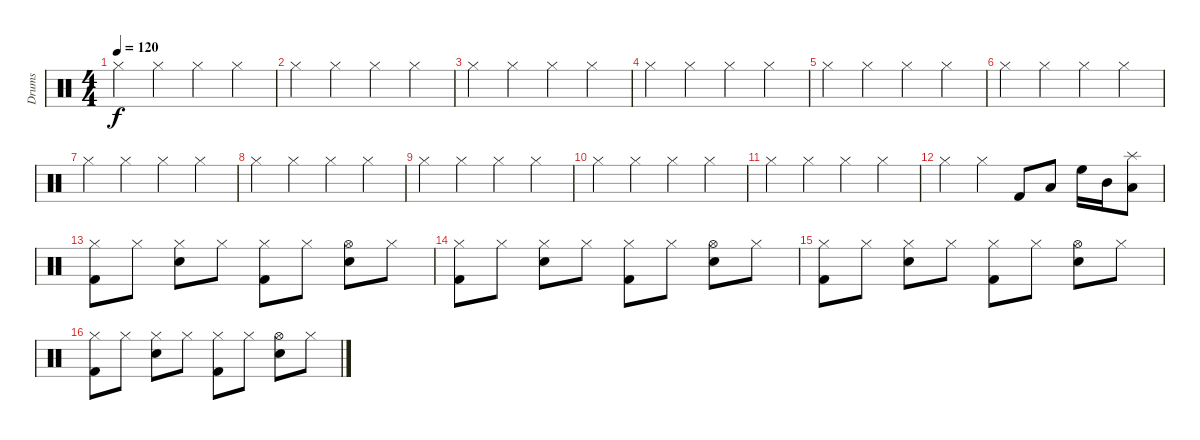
\track ("Drums" "Drums") {instrument percussion}
\staff {score}
\articulation defaults
\ts (4 4)
\tempo 120
\clef neutral
\ks c "Hi-Hat (closed)".4{dy f} "Hi-Hat (closed)".4 "Hi-Hat (closed)".4 "Hi-Hat (closed)".4
|
"Hi-Hat (closed)".4 "Hi-Hat (closed)".4 "Hi-Hat (closed)".4 "Hi-Hat (closed)".4 |
"Hi-Hat (closed)".4 "Hi-Hat (closed)".4 "Hi-Hat (closed)".4 "Hi-Hat (closed)".4 |
"Hi-Hat (closed)".4 "Hi-Hat (closed)".4 "Hi-Hat (closed)".4 "Hi-Hat (closed)".4 |
"Hi-Hat (closed)".4 "Hi-Hat (closed)".4 "Hi-Hat (closed)".4 "Hi-Hat (closed)".4 |
"Hi-Hat (closed)".4 "Hi-Hat (closed)".4 "Hi-Hat (closed)".4 "Hi-Hat (closed)".4 |
"Hi-Hat (closed)".4 "Hi-Hat (closed)".4 "Hi-Hat (closed)".4 "Hi-Hat (closed)".4 |
"Hi-Hat (closed)".4 "Hi-Hat (closed)".4 "Hi-Hat (closed)".4 "Hi-Hat (closed)".4 |
"Hi-Hat (closed)".4 "Hi-Hat (closed)".4 "Hi-Hat (closed)".4 "Hi-Hat (closed)".4 |
"Hi-Hat (closed)".4 "Hi-Hat (closed)".4 "Hi-Hat (closed)".4 "Hi-Hat (closed)".4 |
"Hi-Hat (closed)".4 "Hi-Hat (closed)".4 "Hi-Hat (closed)".4 "Hi-Hat (closed)".4 |
"Hi-Hat (closed)".4 "Hi-Hat (closed)".4 "Kick (hit) 2".8 "Low Tom (hit)".8 "High Floor Tom (hit)".16 "Mid Tom (hit)".16 ("Low Floor Tom (hit)" "Splash (hit)").8 |
("Kick (hit) 2" "Hi-Hat (closed)").8 "Hi-Hat (closed)".8 ("Snare (hit) 2" "Hi-Hat (closed)").8 "Hi-Hat (closed)".8 ("Kick (hit) 2" "Hi-Hat (closed)").8 "Hi-Hat (closed)".8 ("Snare (hit) 2" "Hi-Hat (open)").8 "Hi-Hat (closed)".8 |
("Kick (hit) 2" "Hi-Hat (closed)").8 "Hi-Hat (closed)".8 ("Snare (hit) 2" "Hi-Hat (closed)").8 "Hi-Hat (closed)".8 ("Kick (hit) 2" "Hi-Hat (closed)").8 "Hi-Hat (closed)".8 ("Snare (hit) 2" "Hi-Hat (open)").8 "Hi-Hat (closed)".8 |
("Kick (hit) 2" "Hi-Hat (closed)").8 "Hi-Hat (closed)".8 ("Snare (hit) 2" "Hi-Hat (closed)").8 "Hi-Hat (closed)".8 ("Kick (hit) 2" "Hi-Hat (closed)").8 "Hi-Hat (closed)".8 ("Snare (hit) 2" "Hi-Hat (open)").8 "Hi-Hat (closed)".8 |
("Kick (hit) 2" "Hi-Hat (closed)").8 "Hi-Hat (closed)".8 ("Snare (hit) 2" "Hi-Hat (closed)").8 "Hi-Hat (closed)".8 ("Kick (hit) 2" "Hi-Hat (closed)").8 "Hi-Hat (closed)".8 ("Snare (hit) 2" "Hi-Hat (open)").8 "Hi-Hat (closed)".8
